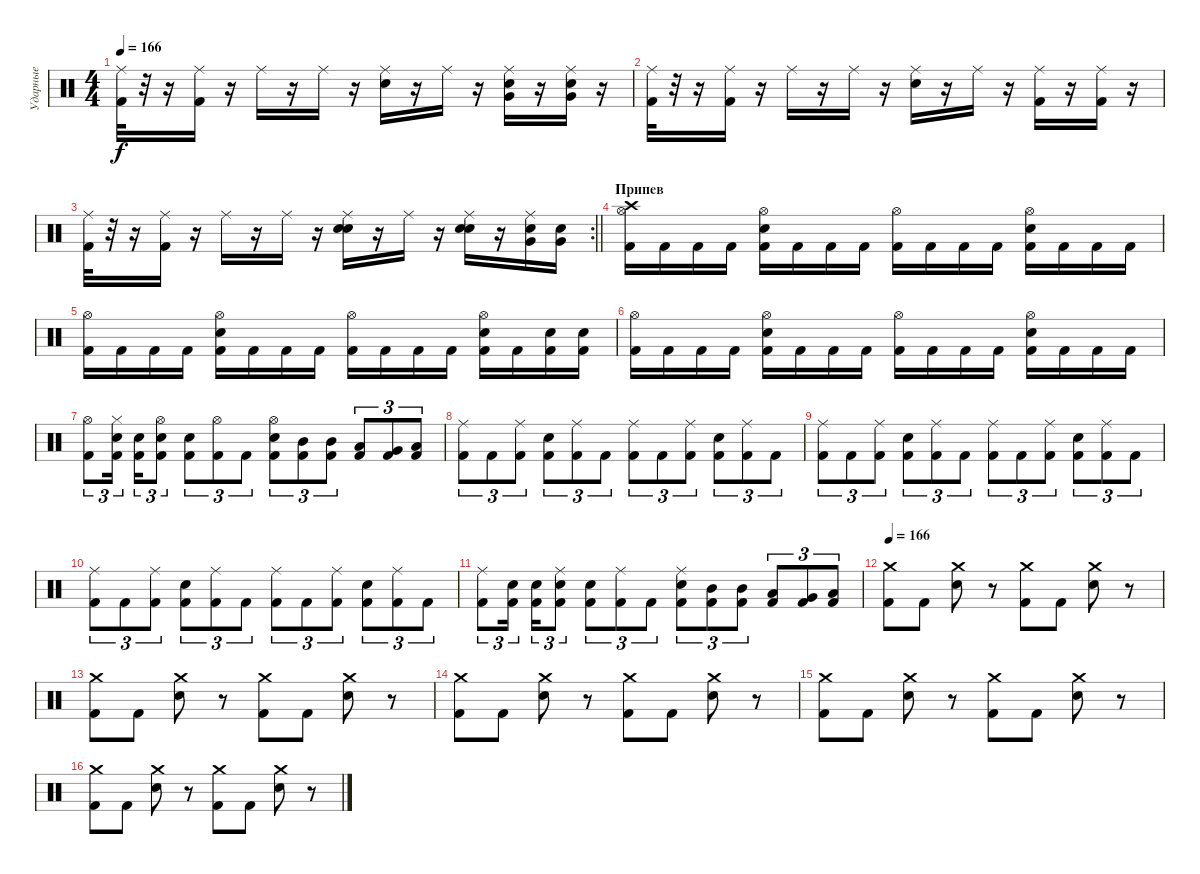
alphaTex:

\track ("Ударные" "Ударные") {instrument percussion}
\staff {score}
\articulation defaults
\ts (4 4)
\tempo 166
\clef neutral
\ks c
("Ride (middle)" "Kick (hit) 2").32{dy f} r.32 r.16 ("Ride (middle)" "Kick (hit) 2").16 r.16 "Ride (middle)".16 r.16 "Ride (middle)".16 r.16 ("Ride (middle)" "Snare (hit) 2").16 r.16 "Ride (middle)".16 r.16 ("Ride (middle)" "Very Low Tom (hit)" "Snare (hit) 2").16 r.16 ("Ride (middle)" "Very Low Tom (hit)" "Snare (hit) 2").16 r.16 |
("Ride (middle)" "Kick (hit) 2").32 r.32 r.16 ("Ride (middle)" "Kick (hit) 2").16 r.16 "Ride (middle)".16 r.16 "Ride (middle)".16 r.16 ("Ride (middle)" "Snare (hit) 2").16 r.16 "Ride (middle)".16 r.16 ("Ride (middle)" "Kick (hit) 2").16 r.16 ("Ride (middle)" "Kick (hit) 2").16 r.16 |
\rc 2
\barLineRight lightlight
("Ride (middle)" "Kick (hit) 2").32 r.32 r.16 ("Ride (middle)" "Kick (hit) 2").16 r.16 "Ride (middle)".16 r.16 "Ride (middle)".16 r.16 ("Ride (middle)" "Snare (hit) 2" "Snare (hit) 2").16 r.16 "Ride (middle)".16 r.16 ("Ride (middle)" "Snare (hit) 2" "Snare (hit) 2").16 r.16 ("Ride (middle)" "Very Low Tom (hit)" "Snare (hit) 2").16 ("Very Low Tom (hit)" "Snare (hit) 2").16 |
\section ("" "Припев")
("Hi-Hat (open)" "Crash high (hit)" "Kick (hit) 2").16 "Kick (hit) 2".16 "Kick (hit) 2".16 "Kick (hit) 2".16 ("Hi-Hat (open)" "Snare (hit) 2" "Kick (hit) 2").16 "Kick (hit) 2".16 "Kick (hit) 2".16 "Kick (hit) 2".16 ("Hi-Hat (open)" "Kick (hit) 2").16 "Kick (hit) 2".16 "Kick (hit) 2".16 "Kick (hit) 2".16 ("Hi-Hat (open)" "Snare (hit) 2" "Kick (hit) 2").16 "Kick (hit) 2".16 "Kick (hit) 2".16 "Kick (hit) 2".16 |
("Hi-Hat (open)" "Kick (hit) 2").16 "Kick (hit) 2".16 "Kick (hit) 2".16 "Kick (hit) 2".16 ("Hi-Hat (open)" "Snare (hit) 2" "Kick (hit) 2").16 "Kick (hit) 2".16 "Kick (hit) 2".16 "Kick (hit) 2".16 ("Hi-Hat (open)" "Kick (hit) 2").16 "Kick (hit) 2".16 "Kick (hit) 2".16 "Kick (hit) 2".16 ("Hi-Hat (open)" "Snare (hit) 2" "Kick (hit) 2").16 "Kick (hit) 2".16 ("Snare (hit) 2" "Kick (hit) 2").16 ("Snare (hit) 2" "Kick (hit) 2").16 |
("Hi-Hat (open)" "Kick (hit) 2").16 "Kick (hit) 2".16 "Kick (hit) 2".16 "Kick (hit) 2".16 ("Hi-Hat (open)" "Snare (hit) 2" "Kick (hit) 2").16 "Kick (hit) 2".16 "Kick (hit) 2".16 "Kick (hit) 2".16 ("Hi-Hat (open)" "Kick (hit) 2").16 "Kick (hit) 2".16 "Kick (hit) 2".16 "Kick (hit) 2".16 ("Hi-Hat (open)" "Snare (hit) 2" "Kick (hit) 2").16 "Kick (hit) 2".16 "Kick (hit) 2".16 "Kick (hit) 2".16 |
("Hi-Hat (open)" "Kick (hit) 2").8{tu (3 2)} ("Hi-Hat (closed)" "Snare (hit) 2" "Kick (hit) 2").16{tu (3 2) beam splitsecondary} ("Snare (hit) 2" "Kick (hit) 2").16{tu (3 2)} ("Hi-Hat (open)" "Snare (hit) 2" "Kick (hit) 2").8{tu (3 2)} ("Snare (hit) 2" "Kick (hit) 2").8{tu (3 2)} ("Hi-Hat (open)" "Kick (hit) 2").8{tu (3 2)} "Kick (hit) 2".8{tu (3 2)} ("Hi-Hat (open)" "Snare (hit) 2" "Kick (hit) 2").8{tu (3 2)} ("Mid Tom (hit)" "Kick (hit) 2").8{tu (3 2)} ("Mid Tom (hit)" "Kick (hit) 2").8{tu (3 2)} ("Low Tom (hit)" "Kick (hit) 2").8{tu (3 2)} ("Very Low Tom (hit)" "Kick (hit) 2").8{tu (3 2)} ("Low Floor Tom (hit)" "Kick (hit) 2").8{tu (3 2)} |
("Ride (middle)" "Kick (hit) 2").8{tu (3 2)} "Kick (hit) 2".8{tu (3 2)} ("Ride (middle)" "Kick (hit) 2").8{tu (3 2)} ("Snare (hit) 2" "Kick (hit) 2").8{tu (3 2)} ("Ride (middle)" "Kick (hit) 2").8{tu (3 2)} "Kick (hit) 2".8{tu (3 2)} ("Ride (middle)" "Kick (hit) 2").8{tu (3 2)} "Kick (hit) 2".8{tu (3 2)} ("Ride (middle)" "Kick (hit) 2").8{tu (3 2)} ("Snare (hit) 2" "Kick (hit) 2").8{tu (3 2)} ("Ride (middle)" "Kick (hit) 2").8{tu (3 2)} "Kick (hit) 2".8{tu (3 2)} |
("Ride (middle)" "Kick (hit) 2").8{tu (3 2)} "Kick (hit) 2".8{tu (3 2)} ("Ride (middle)" "Kick (hit) 2").8{tu (3 2)} ("Snare (hit) 2" "Kick (hit) 2").8{tu (3 2)} ("Ride (middle)" "Kick (hit) 2").8{tu (3 2)} "Kick (hit) 2".8{tu (3 2)} ("Ride (middle)" "Kick (hit) 2").8{tu (3 2)} "Kick (hit) 2".8{tu (3 2)} ("Ride (middle)" "Kick (hit) 2").8{tu (3 2)} ("Snare (hit) 2" "Kick (hit) 2").8{tu (3 2)} ("Ride (middle)" "Kick (hit) 2").8{tu (3 2)} "Kick (hit) 2".8{tu (3 2)} |
("Ride (middle)" "Kick (hit) 2").8{tu (3 2)} "Kick (hit) 2".8{tu (3 2)} ("Ride (middle)" "Kick (hit) 2").8{tu (3 2)} ("Snare (hit) 2" "Kick (hit) 2").8{tu (3 2)} ("Ride (middle)" "Kick (hit) 2").8{tu (3 2)} "Kick (hit) 2".8{tu (3 2)} ("Ride (middle)" "Kick (hit) 2").8{tu (3 2)} "Kick (hit) 2".8{tu (3 2)} ("Ride (middle)" "Kick (hit) 2").8{tu (3 2)} ("Snare (hit) 2" "Kick (hit) 2").8{tu (3 2)} ("Ride (middle)" "Kick (hit) 2").8{tu (3 2)} "Kick (hit) 2".8{tu (3 2)} |
("Ride (middle)" "Kick (hit) 2").8{tu (3 2)} ("Snare (hit) 2" "Kick (hit) 2").16{tu (3 2) beam splitsecondary} ("Snare (hit) 2" "Kick (hit) 2").16{tu (3 2)} ("Ride (middle)" "Snare (hit) 2" "Kick (hit) 2").8{tu (3 2)} ("Snare (hit) 2" "Kick (hit) 2").8{tu (3 2)} ("Ride (middle)" "Kick (hit) 2").8{tu (3 2)} "Kick (hit) 2".8{tu (3 2)} ("Ride (middle)" "Snare (hit) 2" "Kick (hit) 2").8{tu (3 2)} ("Mid Tom (hit)" "Kick (hit) 2").8{tu (3 2)} ("Mid Tom (hit)" "Kick (hit) 2").8{tu (3 2)} ("Low Tom (hit)" "Kick (hit) 2").8{tu (3 2)} ("Very Low Tom (hit)" "Kick (hit) 2").8{tu (3 2)} ("Low Floor Tom (hit)" "Kick (hit) 2").8{tu (3 2)} |
\tempo 166
("Crash medium (hit)" "Kick (hit) 2").8 "Kick (hit) 2".8 ("Crash medium (hit)" "Snare (hit) 2").8 r.8 ("Crash medium (hit)" "Kick (hit) 2").8 "Kick (hit) 2".8 ("Crash medium (hit)" "Snare (hit) 2").8 r.8 |
("Crash medium (hit)" "Kick (hit) 2").8 "Kick (hit) 2".8 ("Crash medium (hit)" "Snare (hit) 2").8 r.8 ("Crash medium (hit)" "Kick (hit) 2").8 "Kick (hit) 2".8 ("Crash medium (hit)" "Snare (hit) 2").8 r.8 |
("Crash medium (hit)" "Kick (hit) 2").8 "Kick (hit) 2".8 ("Crash medium (hit)" "Snare (hit) 2").8 r.8 ("Crash medium (hit)" "Kick (hit) 2").8 "Kick (hit) 2".8 ("Crash medium (hit)" "Snare (hit) 2").8 r.8 |
("Crash medium (hit)" "Kick (hit) 2").8 "Kick (hit) 2".8 ("Crash medium (hit)" "Snare (hit) 2").8 r.8 ("Crash medium (hit)" "Kick (hit) 2").8 "Kick (hit) 2".8 ("Crash medium (hit)" "Snare (hit) 2").8 r.8 |
("Crash medium (hit)" "Kick (hit) 2").8 "Kick (hit) 2".8 ("Crash medium (hit)" "Snare (hit) 2").8 r.8 ("Crash medium (hit)" "Kick (hit) 2").8 "Kick (hit) 2".8 ("Crash medium (hit)" "Snare (hit) 2").8 r.8
